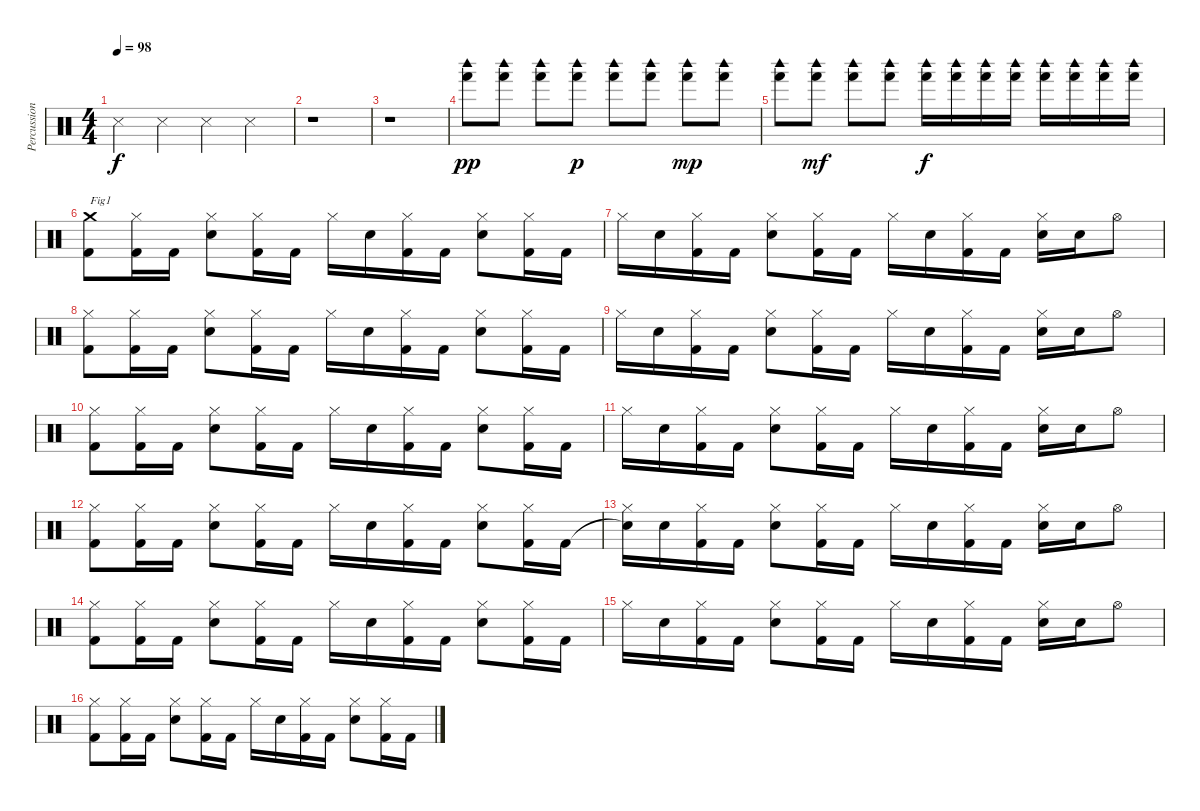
\track ("Percussions" "Percussion") {instrument percussion}
\staff {score}
\articulation defaults
\ts (4 4)
\tempo 98
\clef neutral
\ks c "Metronome (hit)".4{dy f} "Metronome (hit)".4 "Metronome (hit)".4 "Metronome (hit)".4
|
r.1 |
r.1 |
("Hand (hit)" "Woodblock high (hit)").8{dy pp} ("Hand (hit)" "Woodblock high (hit)").8 ("Hand (hit)" "Woodblock high (hit)").8 ("Hand (hit)" "Woodblock high (hit)").8{dy p} ("Hand (hit)" "Woodblock high (hit)").8 ("Hand (hit)" "Woodblock high (hit)").8 ("Hand (hit)" "Woodblock high (hit)").8{dy mp} ("Hand (hit)" "Woodblock high (hit)").8 |
("Hand (hit)" "Woodblock high (hit)").8 ("Hand (hit)" "Woodblock high (hit)").8{dy mf} ("Hand (hit)" "Woodblock high (hit)").8 ("Hand (hit)" "Woodblock high (hit)").8 ("Hand (hit)" "Woodblock high (hit)").16{dy f} ("Hand (hit)" "Woodblock high (hit)").16 ("Hand (hit)" "Woodblock high (hit)").16 ("Hand (hit)" "Woodblock high (hit)").16 ("Hand (hit)" "Woodblock high (hit)").16 ("Hand (hit)" "Woodblock high (hit)").16 ("Hand (hit)" "Woodblock high (hit)").16 ("Hand (hit)" "Woodblock high (hit)").16 |
("Kick (hit) 2" "Crash medium (hit)").8{txt "Fig1"} ("Kick (hit) 2" "Hi-Hat (closed)").16 "Kick (hit) 2".16 ("Electric Snare (hit)" "Hi-Hat (closed)").8 ("Kick (hit) 2" "Hi-Hat (closed)").16 "Kick (hit) 2".16 "Hi-Hat (closed)".16 "Electric Snare (hit)".16 ("Kick (hit) 2" "Hi-Hat (closed)").16 "Kick (hit) 2".16 ("Electric Snare (hit)" "Hi-Hat (closed)").8 ("Kick (hit) 2" "Hi-Hat (closed)").16 "Kick (hit) 2".16 |
"Hi-Hat (closed)".16 "Electric Snare (hit)".16 ("Kick (hit) 2" "Hi-Hat (closed)").16 "Kick (hit) 2".16 ("Electric Snare (hit)" "Hi-Hat (closed)").8 ("Kick (hit) 2" "Hi-Hat (closed)").16 "Kick (hit) 2".16 "Hi-Hat (closed)".16 "Electric Snare (hit)".16 ("Kick (hit) 2" "Hi-Hat (closed)").16 "Kick (hit) 2".16 ("Electric Snare (hit)" "Hi-Hat (closed)").16 "Electric Snare (hit)".16 "Hi-Hat (open)".8 |
("Kick (hit) 2" "Hi-Hat (closed)").8 ("Kick (hit) 2" "Hi-Hat (closed)").16 "Kick (hit) 2".16 ("Electric Snare (hit)" "Hi-Hat (closed)").8 ("Kick (hit) 2" "Hi-Hat (closed)").16 "Kick (hit) 2".16 "Hi-Hat (closed)".16 "Electric Snare (hit)".16 ("Kick (hit) 2" "Hi-Hat (closed)").16 "Kick (hit) 2".16 ("Electric Snare (hit)" "Hi-Hat (closed)").8 ("Kick (hit) 2" "Hi-Hat (closed)").16 "Kick (hit) 2".16 |
"Hi-Hat (closed)".16 "Electric Snare (hit)".16 ("Kick (hit) 2" "Hi-Hat (closed)").16 "Kick (hit) 2".16 ("Electric Snare (hit)" "Hi-Hat (closed)").8 ("Kick (hit) 2" "Hi-Hat (closed)").16 "Kick (hit) 2".16 "Hi-Hat (closed)".16 "Electric Snare (hit)".16 ("Kick (hit) 2" "Hi-Hat (closed)").16 "Kick (hit) 2".16 ("Electric Snare (hit)" "Hi-Hat (closed)").16 "Electric Snare (hit)".16 "Hi-Hat (open)".8 |
("Kick (hit) 2" "Hi-Hat (closed)").8 ("Kick (hit) 2" "Hi-Hat (closed)").16 "Kick (hit) 2".16 ("Electric Snare (hit)" "Hi-Hat (closed)").8 ("Kick (hit) 2" "Hi-Hat (closed)").16 "Kick (hit) 2".16 "Hi-Hat (closed)".16 "Electric Snare (hit)".16 ("Kick (hit) 2" "Hi-Hat (closed)").16 "Kick (hit) 2".16 ("Electric Snare (hit)" "Hi-Hat (closed)").8 ("Kick (hit) 2" "Hi-Hat (closed)").16 "Kick (hit) 2".16 |
"Hi-Hat (closed)".16 "Electric Snare (hit)".16 ("Kick (hit) 2" "Hi-Hat (closed)").16 "Kick (hit) 2".16 ("Electric Snare (hit)" "Hi-Hat (closed)").8 ("Kick (hit) 2" "Hi-Hat (closed)").16 "Kick (hit) 2".16 "Hi-Hat (closed)".16 "Electric Snare (hit)".16 ("Kick (hit) 2" "Hi-Hat (closed)").16 "Kick (hit) 2".16 ("Electric Snare (hit)" "Hi-Hat (closed)").16 "Electric Snare (hit)".16 "Hi-Hat (open)".8 |
("Kick (hit) 2" "Hi-Hat (closed)").8 ("Kick (hit) 2" "Hi-Hat (closed)").16 "Kick (hit) 2".16 ("Electric Snare (hit)" "Hi-Hat (closed)").8 ("Kick (hit) 2" "Hi-Hat (closed)").16 "Kick (hit) 2".16 "Hi-Hat (closed)".16 "Electric Snare (hit)".16 ("Kick (hit) 2" "Hi-Hat (closed)").16 "Kick (hit) 2".16 ("Electric Snare (hit)" "Hi-Hat (closed)").8 ("Kick (hit) 2" "Hi-Hat (closed)").16 "Kick (hit) 2".16 |
("Snare (hit)"{t} "Hi-Hat (closed)").16 "Electric Snare (hit)".16 ("Kick (hit) 2" "Hi-Hat (closed)").16 "Kick (hit) 2".16 ("Electric Snare (hit)" "Hi-Hat (closed)").8 ("Kick (hit) 2" "Hi-Hat (closed)").16 "Kick (hit) 2".16 "Hi-Hat (closed)".16 "Electric Snare (hit)".16 ("Kick (hit) 2" "Hi-Hat (closed)").16 "Kick (hit) 2".16 ("Electric Snare (hit)" "Hi-Hat (closed)").16 "Electric Snare (hit)".16 "Hi-Hat (open)".8 |
("Kick (hit) 2" "Hi-Hat (closed)").8 ("Kick (hit) 2" "Hi-Hat (closed)").16 "Kick (hit) 2".16 ("Electric Snare (hit)" "Hi-Hat (closed)").8 ("Kick (hit) 2" "Hi-Hat (closed)").16 "Kick (hit) 2".16 "Hi-Hat (closed)".16 "Electric Snare (hit)".16 ("Kick (hit) 2" "Hi-Hat (closed)").16 "Kick (hit) 2".16 ("Electric Snare (hit)" "Hi-Hat (closed)").8 ("Kick (hit) 2" "Hi-Hat (closed)").16 "Kick (hit) 2".16 |
"Hi-Hat (closed)".16 "Electric Snare (hit)".16 ("Kick (hit) 2" "Hi-Hat (closed)").16 "Kick (hit) 2".16 ("Electric Snare (hit)" "Hi-Hat (closed)").8 ("Kick (hit) 2" "Hi-Hat (closed)").16 "Kick (hit) 2".16 "Hi-Hat (closed)".16 "Electric Snare (hit)".16 ("Kick (hit) 2" "Hi-Hat (closed)").16 "Kick (hit) 2".16 ("Electric Snare (hit)" "Hi-Hat (closed)").16 "Electric Snare (hit)".16 "Hi-Hat (open)".8 |
("Kick (hit) 2" "Hi-Hat (closed)").8 ("Kick (hit) 2" "Hi-Hat (closed)").16 "Kick (hit) 2".16 ("Electric Snare (hit)" "Hi-Hat (closed)").8 ("Kick (hit) 2" "Hi-Hat (closed)").16 "Kick (hit) 2".16 "Hi-Hat (closed)".16 "Electric Snare (hit)".16 ("Kick (hit) 2" "Hi-Hat (closed)").16 "Kick (hit) 2".16 ("Electric Snare (hit)" "Hi-Hat (closed)").8 ("Kick (hit) 2" "Hi-Hat (closed)").16 "Kick (hit) 2".16
